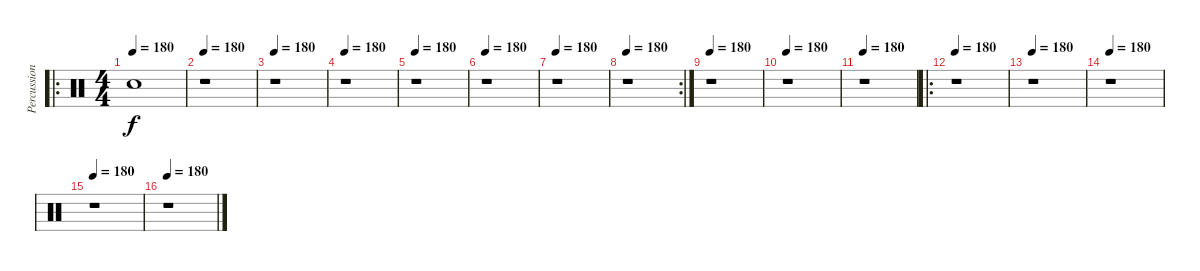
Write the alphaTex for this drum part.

\track ("Percussions" "Percussion") {instrument percussion}
\staff {score}
\articulation defaults
\ro
\ts (4 4)
\tempo 180
\clef neutral
\ks c "Snare (hit)"{t}.1{dy f}
|
\tempo 180
r.1 |
\tempo 180
r.1 |
\tempo 180
r.1 |
\tempo 180
r.1 |
\tempo 180
r.1 |
\tempo 180
r.1 |
\rc 2
\tempo 180
r.1 |
\tempo 180
r.1 |
\tempo 180
r.1 |
\tempo 180
r.1 |
\ro
\tempo 180
r.1 |
\tempo 180
r.1 |
\tempo 180
r.1 |
\tempo 180
r.1 |
\tempo 180
r.1
